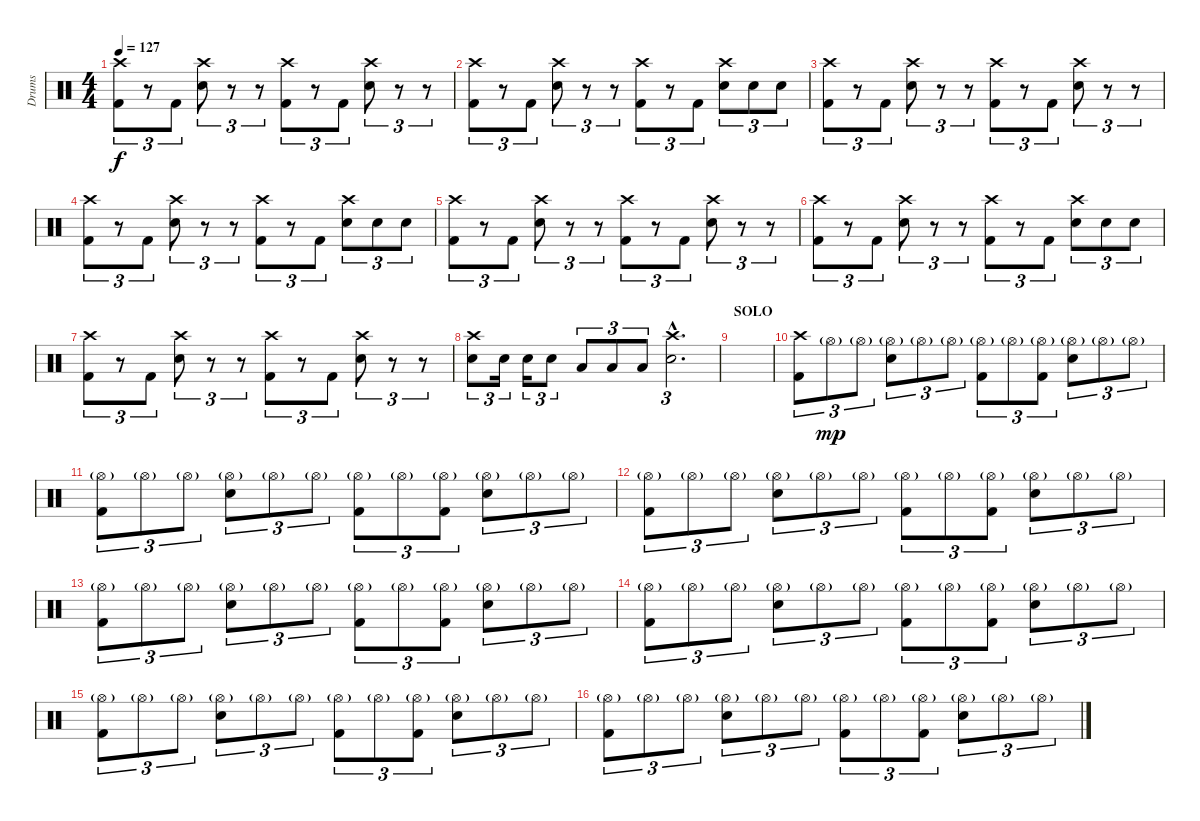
\track ("Drums" "Drums") {instrument percussion}
\staff {score}
\articulation defaults
\ts (4 4)
\tempo 127
\clef neutral
\ks c
("Crash high (hit)" "Kick (hit) 2").8{tu (3 2) dy f} r.8{tu (3 2)} "Kick (hit) 2".8{tu (3 2)} ("Crash high (hit)" "Electric Snare (hit)").8{tu (3 2)} r.8{tu (3 2)} r.8{tu (3 2)} ("Crash high (hit)" "Kick (hit) 2").8{tu (3 2)} r.8{tu (3 2)} "Kick (hit) 2".8{tu (3 2)} ("Crash high (hit)" "Electric Snare (hit)").8{tu (3 2)} r.8{tu (3 2)} r.8{tu (3 2)} |
("Crash high (hit)" "Kick (hit) 2").8{tu (3 2)} r.8{tu (3 2)} "Kick (hit) 2".8{tu (3 2)} ("Crash high (hit)" "Electric Snare (hit)").8{tu (3 2)} r.8{tu (3 2)} r.8{tu (3 2)} ("Crash high (hit)" "Kick (hit) 2").8{tu (3 2)} r.8{tu (3 2)} "Kick (hit) 2".8{tu (3 2)} ("Crash high (hit)" "Electric Snare (hit)").8{tu (3 2)} "Electric Snare (hit)".8{tu (3 2)} "Electric Snare (hit)".8{tu (3 2)} |
("Crash high (hit)" "Kick (hit) 2").8{tu (3 2)} r.8{tu (3 2)} "Kick (hit) 2".8{tu (3 2)} ("Crash high (hit)" "Electric Snare (hit)").8{tu (3 2)} r.8{tu (3 2)} r.8{tu (3 2)} ("Crash high (hit)" "Kick (hit) 2").8{tu (3 2)} r.8{tu (3 2)} "Kick (hit) 2".8{tu (3 2)} ("Crash high (hit)" "Electric Snare (hit)").8{tu (3 2)} r.8{tu (3 2)} r.8{tu (3 2)} |
("Crash high (hit)" "Kick (hit) 2").8{tu (3 2)} r.8{tu (3 2)} "Kick (hit) 2".8{tu (3 2)} ("Crash high (hit)" "Electric Snare (hit)").8{tu (3 2)} r.8{tu (3 2)} r.8{tu (3 2)} ("Crash high (hit)" "Kick (hit) 2").8{tu (3 2)} r.8{tu (3 2)} "Kick (hit) 2".8{tu (3 2)} ("Crash high (hit)" "Electric Snare (hit)").8{tu (3 2)} "Electric Snare (hit)".8{tu (3 2)} "Electric Snare (hit)".8{tu (3 2)} |
("Crash high (hit)" "Kick (hit) 2").8{tu (3 2)} r.8{tu (3 2)} "Kick (hit) 2".8{tu (3 2)} ("Crash high (hit)" "Electric Snare (hit)").8{tu (3 2)} r.8{tu (3 2)} r.8{tu (3 2)} ("Crash high (hit)" "Kick (hit) 2").8{tu (3 2)} r.8{tu (3 2)} "Kick (hit) 2".8{tu (3 2)} ("Crash high (hit)" "Electric Snare (hit)").8{tu (3 2)} r.8{tu (3 2)} r.8{tu (3 2)} |
("Crash high (hit)" "Kick (hit) 2").8{tu (3 2)} r.8{tu (3 2)} "Kick (hit) 2".8{tu (3 2)} ("Crash high (hit)" "Electric Snare (hit)").8{tu (3 2)} r.8{tu (3 2)} r.8{tu (3 2)} ("Crash high (hit)" "Kick (hit) 2").8{tu (3 2)} r.8{tu (3 2)} "Kick (hit) 2".8{tu (3 2)} ("Crash high (hit)" "Electric Snare (hit)").8{tu (3 2)} "Electric Snare (hit)".8{tu (3 2)} "Electric Snare (hit)".8{tu (3 2)} |
("Crash high (hit)" "Kick (hit) 2").8{tu (3 2)} r.8{tu (3 2)} "Kick (hit) 2".8{tu (3 2)} ("Crash high (hit)" "Electric Snare (hit)").8{tu (3 2)} r.8{tu (3 2)} r.8{tu (3 2)} ("Crash high (hit)" "Kick (hit) 2").8{tu (3 2)} r.8{tu (3 2)} "Kick (hit) 2".8{tu (3 2)} ("Crash high (hit)" "Electric Snare (hit)").8{tu (3 2)} r.8{tu (3 2)} r.8{tu (3 2)} |
("Crash high (hit)" "Electric Snare (hit)").8{tu (3 2)} "Electric Snare (hit)".16{tu (3 2)} "Electric Snare (hit)".16{tu (3 2)} "Electric Snare (hit)".8{tu (3 2)} "Low Tom (hit)".8{tu (3 2)} "Low Tom (hit)".8{tu (3 2)} "Low Tom (hit)".8{tu (3 2)} ("Crash high (hit)"{hac} "Electric Snare (hit)"{hac}).2{d tu (3 2)} |
\section ("" "SOLO")
|
("Crash high (hit)" "Kick (hit) 2").8{tu (3 2)} "Hi-Hat (open)"{g}.8{tu (3 2) dy mp} "Hi-Hat (open)"{g}.8{tu (3 2)} ("Hi-Hat (open)"{g} "Electric Snare (hit)").8{tu (3 2)} "Hi-Hat (open)"{g}.8{tu (3 2)} "Hi-Hat (open)"{g}.8{tu (3 2)} ("Hi-Hat (open)"{g} "Kick (hit) 2").8{tu (3 2)} "Hi-Hat (open)"{g}.8{tu (3 2)} ("Hi-Hat (open)"{g} "Kick (hit) 2").8{tu (3 2)} ("Hi-Hat (open)"{g} "Electric Snare (hit)").8{tu (3 2)} "Hi-Hat (open)"{g}.8{tu (3 2)} "Hi-Hat (open)"{g}.8{tu (3 2)} |
("Hi-Hat (open)"{g} "Kick (hit) 2").8{tu (3 2)} "Hi-Hat (open)"{g}.8{tu (3 2)} "Hi-Hat (open)"{g}.8{tu (3 2)} ("Hi-Hat (open)"{g} "Electric Snare (hit)").8{tu (3 2)} "Hi-Hat (open)"{g}.8{tu (3 2)} "Hi-Hat (open)"{g}.8{tu (3 2)} ("Hi-Hat (open)"{g} "Kick (hit) 2").8{tu (3 2)} "Hi-Hat (open)"{g}.8{tu (3 2)} ("Hi-Hat (open)"{g} "Kick (hit) 2").8{tu (3 2)} ("Hi-Hat (open)"{g} "Electric Snare (hit)").8{tu (3 2)} "Hi-Hat (open)"{g}.8{tu (3 2)} "Hi-Hat (open)"{g}.8{tu (3 2)} |
("Hi-Hat (open)"{g} "Kick (hit) 2").8{tu (3 2)} "Hi-Hat (open)"{g}.8{tu (3 2)} "Hi-Hat (open)"{g}.8{tu (3 2)} ("Hi-Hat (open)"{g} "Electric Snare (hit)").8{tu (3 2)} "Hi-Hat (open)"{g}.8{tu (3 2)} "Hi-Hat (open)"{g}.8{tu (3 2)} ("Hi-Hat (open)"{g} "Kick (hit) 2").8{tu (3 2)} "Hi-Hat (open)"{g}.8{tu (3 2)} ("Hi-Hat (open)"{g} "Kick (hit) 2").8{tu (3 2)} ("Hi-Hat (open)"{g} "Electric Snare (hit)").8{tu (3 2)} "Hi-Hat (open)"{g}.8{tu (3 2)} "Hi-Hat (open)"{g}.8{tu (3 2)} |
("Hi-Hat (open)"{g} "Kick (hit) 2").8{tu (3 2)} "Hi-Hat (open)"{g}.8{tu (3 2)} "Hi-Hat (open)"{g}.8{tu (3 2)} ("Hi-Hat (open)"{g} "Electric Snare (hit)").8{tu (3 2)} "Hi-Hat (open)"{g}.8{tu (3 2)} "Hi-Hat (open)"{g}.8{tu (3 2)} ("Hi-Hat (open)"{g} "Kick (hit) 2").8{tu (3 2)} "Hi-Hat (open)"{g}.8{tu (3 2)} ("Hi-Hat (open)"{g} "Kick (hit) 2").8{tu (3 2)} ("Hi-Hat (open)"{g} "Electric Snare (hit)").8{tu (3 2)} "Hi-Hat (open)"{g}.8{tu (3 2)} "Hi-Hat (open)"{g}.8{tu (3 2)} |
("Hi-Hat (open)"{g} "Kick (hit) 2").8{tu (3 2)} "Hi-Hat (open)"{g}.8{tu (3 2)} "Hi-Hat (open)"{g}.8{tu (3 2)} ("Hi-Hat (open)"{g} "Electric Snare (hit)").8{tu (3 2)} "Hi-Hat (open)"{g}.8{tu (3 2)} "Hi-Hat (open)"{g}.8{tu (3 2)} ("Hi-Hat (open)"{g} "Kick (hit) 2").8{tu (3 2)} "Hi-Hat (open)"{g}.8{tu (3 2)} ("Hi-Hat (open)"{g} "Kick (hit) 2").8{tu (3 2)} ("Hi-Hat (open)"{g} "Electric Snare (hit)").8{tu (3 2)} "Hi-Hat (open)"{g}.8{tu (3 2)} "Hi-Hat (open)"{g}.8{tu (3 2)} |
("Hi-Hat (open)"{g} "Kick (hit) 2").8{tu (3 2)} "Hi-Hat (open)"{g}.8{tu (3 2)} "Hi-Hat (open)"{g}.8{tu (3 2)} ("Hi-Hat (open)"{g} "Electric Snare (hit)").8{tu (3 2)} "Hi-Hat (open)"{g}.8{tu (3 2)} "Hi-Hat (open)"{g}.8{tu (3 2)} ("Hi-Hat (open)"{g} "Kick (hit) 2").8{tu (3 2)} "Hi-Hat (open)"{g}.8{tu (3 2)} ("Hi-Hat (open)"{g} "Kick (hit) 2").8{tu (3 2)} ("Hi-Hat (open)"{g} "Electric Snare (hit)").8{tu (3 2)} "Hi-Hat (open)"{g}.8{tu (3 2)} "Hi-Hat (open)"{g}.8{tu (3 2)} |
("Hi-Hat (open)"{g} "Kick (hit) 2").8{tu (3 2)} "Hi-Hat (open)"{g}.8{tu (3 2)} "Hi-Hat (open)"{g}.8{tu (3 2)} ("Hi-Hat (open)"{g} "Electric Snare (hit)").8{tu (3 2)} "Hi-Hat (open)"{g}.8{tu (3 2)} "Hi-Hat (open)"{g}.8{tu (3 2)} ("Hi-Hat (open)"{g} "Kick (hit) 2").8{tu (3 2)} "Hi-Hat (open)"{g}.8{tu (3 2)} ("Hi-Hat (open)"{g} "Kick (hit) 2").8{tu (3 2)} ("Hi-Hat (open)"{g} "Electric Snare (hit)").8{tu (3 2)} "Hi-Hat (open)"{g}.8{tu (3 2)} "Hi-Hat (open)"{g}.8{tu (3 2)}
